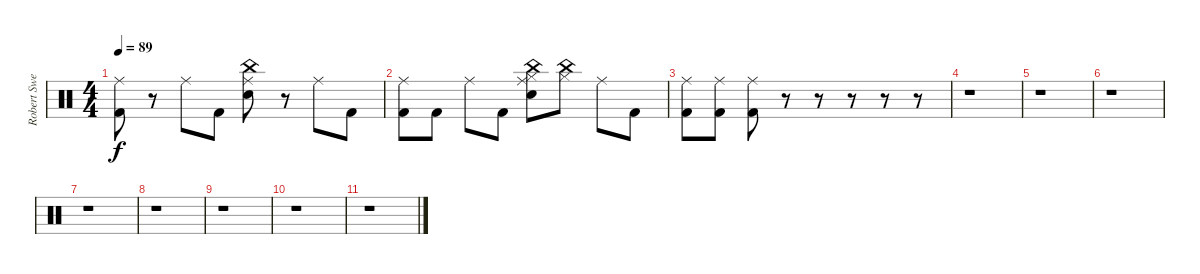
\track ("Robert Sweet" "Robert Swe") {instrument percussion}
\staff {score}
\articulation defaults
\ts (4 4)
\tempo 89
\clef neutral
\ks c
("Ride (middle)" "Kick (hit) 2").8{dy f} r.8 "Ride (middle)".8 "Kick (hit) 2".8 ("Ride (middle)" "China (hit)" "Electric Snare (hit)").8 r.8 "Ride (middle)".8 "Kick (hit) 2".8 |
("Ride (middle)" "Kick (hit) 2").8 "Kick (hit) 2".8 "Ride (middle)".8 "Kick (hit) 2".8 ("Ride (middle)" "China (hit)" "Hi-Hat (closed)" "Electric Snare (hit)").8 ("China (hit)" "Hi-Hat (closed)").8 "Ride (middle)".8 "Kick (hit) 2".8 |
("Ride (middle)" "Kick (hit) 2").8 ("Ride (middle)" "Kick (hit) 2").8 ("Ride (middle)" "Kick (hit) 2").8 r.8 r.8 r.8 r.8 r.8 |
r.1 |
r.1 |
r.1 |
r.1 |
r.1 |
r.1 |
r.1 |
r.1
